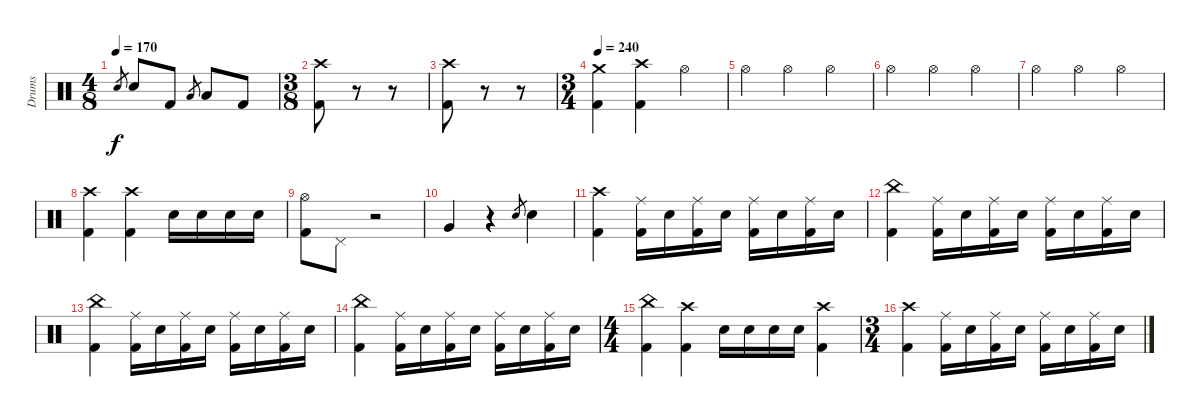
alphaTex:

\track ("Drums" "Drums") {instrument percussion}
\staff {score}
\articulation defaults
\ts (4 8)
\tempo 170
\clef neutral
\ks c "Electric Snare (hit)".8{gr dy f} "Electric Snare (hit)".8{beam merge} "Kick (hit) 2".8 "Low Tom (hit)".8{gr beam split} "Low Tom (hit)".8{beam merge} "Kick (hit) 2".8
|
\ts (3 8)
("Crash high (hit)" "Kick (hit) 2").8 r.8{volume 0} r.8 |
("Crash high (hit)" "Kick (hit) 2").8{volume 13} r.8{volume 0} r.8 |
\ts (3 4)
\tempo 240
("Crash medium (hit)" "Kick (hit) 2").4{volume 13} ("Crash high (hit)" "Kick (hit) 2").4 "Hi-Hat (open)".4 |
"Hi-Hat (open)".4 "Hi-Hat (open)".4 "Hi-Hat (open)".4 |
"Hi-Hat (open)".4 "Hi-Hat (open)".4 "Hi-Hat (open)".4 |
"Hi-Hat (open)".4 "Hi-Hat (open)".4 "Hi-Hat (open)".4 |
("Crash high (hit)" "Kick (hit) 2").4 ("Crash high (hit)" "Kick (hit) 2").4 "Electric Snare (hit)".16 "Electric Snare (hit)".16 "Electric Snare (hit)".16 "Electric Snare (hit)".16 |
("Hi-Hat (open)" "Kick (hit) 2").8 "Pedal Hi-Hat (hit)".8 r.2 |
"Very Low Tom (hit)".4 r.4 "Electric Snare (hit)".8{gr} "Electric Snare (hit)".4 |
("Crash high (hit)" "Kick (hit) 2").4 ("Ride (middle)" "Kick (hit) 2").16 "Electric Snare (hit)".16 ("Ride (middle)" "Kick (hit) 2").16 "Electric Snare (hit)".16 ("Ride (middle)" "Kick (hit) 2").16 "Electric Snare (hit)".16 ("Ride (middle)" "Kick (hit) 2").16 "Electric Snare (hit)".16 |
("China (hit)" "Kick (hit) 2").4 ("Ride (middle)" "Kick (hit) 2").16 "Electric Snare (hit)".16 ("Ride (middle)" "Kick (hit) 2").16 "Electric Snare (hit)".16 ("Ride (middle)" "Kick (hit) 2").16 "Electric Snare (hit)".16 ("Ride (middle)" "Kick (hit) 2").16 "Electric Snare (hit)".16 |
("China (hit)" "Kick (hit) 2").4 ("Ride (middle)" "Kick (hit) 2").16 "Electric Snare (hit)".16 ("Ride (middle)" "Kick (hit) 2").16 "Electric Snare (hit)".16 ("Ride (middle)" "Kick (hit) 2").16 "Electric Snare (hit)".16 ("Ride (middle)" "Kick (hit) 2").16 "Electric Snare (hit)".16 |
("China (hit)" "Kick (hit) 2").4 ("Ride (middle)" "Kick (hit) 2").16 "Electric Snare (hit)".16 ("Ride (middle)" "Kick (hit) 2").16 "Electric Snare (hit)".16 ("Ride (middle)" "Kick (hit) 2").16 "Electric Snare (hit)".16 ("Ride (middle)" "Kick (hit) 2").16 "Electric Snare (hit)".16 |
\ts (4 4)
("China (hit)" "Kick (hit) 2").4 ("Crash high (hit)" "Kick (hit) 2").4 "Electric Snare (hit)".16 "Electric Snare (hit)".16 "Electric Snare (hit)".16 "Electric Snare (hit)".16 ("Crash high (hit)" "Kick (hit) 2").4 |
\ts (3 4)
("Crash high (hit)" "Kick (hit) 2").4 ("Ride (middle)" "Kick (hit) 2").16 "Electric Snare (hit)".16 ("Ride (middle)" "Kick (hit) 2").16 "Electric Snare (hit)".16 ("Ride (middle)" "Kick (hit) 2").16 "Electric Snare (hit)".16 ("Ride (middle)" "Kick (hit) 2").16 "Electric Snare (hit)".16
